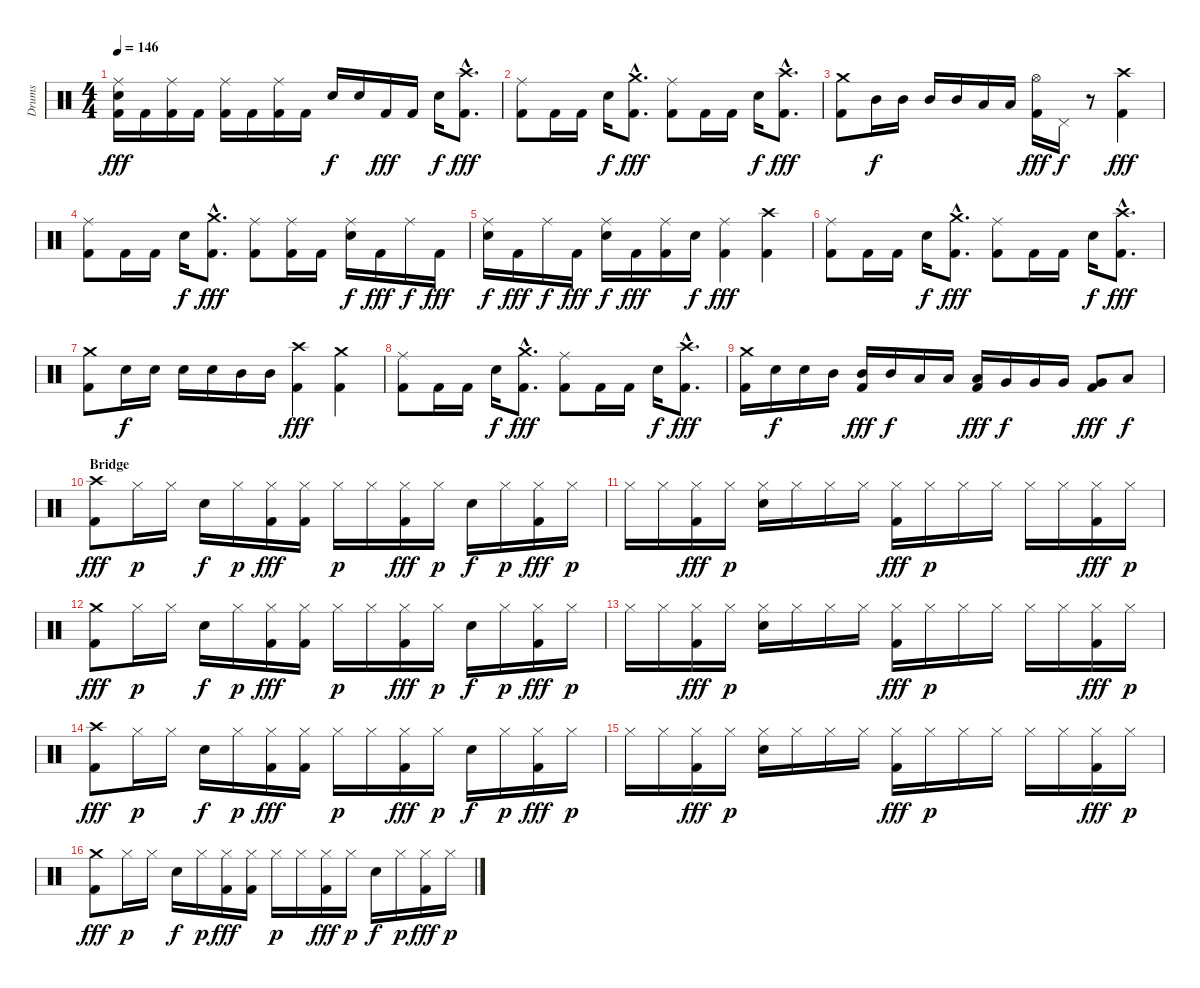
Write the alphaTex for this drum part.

\track ("Drums" "Drums") {instrument percussion}
\staff {score}
\articulation defaults
\ts (4 4)
\tempo 146
\clef neutral
\ks c
("Ride (middle)" "Snare (hit) 2" "Kick (hit) 2").16{dy fff} "Kick (hit) 2".16 ("Ride (middle)" "Kick (hit) 2").16 "Kick (hit) 2".16 ("Ride (middle)" "Kick (hit) 2").16 "Kick (hit) 2".16 ("Ride (middle)" "Kick (hit) 2").16 "Kick (hit) 2".16 "Snare (hit) 2".16{dy f} "Snare (hit) 2".16 "Kick (hit) 2".16{dy fff} "Kick (hit) 2".16 "Snare (hit) 2".16{dy f} ("Crash high (hit)"{hac} "Kick (hit) 2"{hac}).8{d dy fff} |
("Ride (middle)" "Kick (hit) 2").8 "Kick (hit) 2".16 "Kick (hit) 2".16 "Snare (hit) 2".16{dy f} ("Crash medium (hit)"{hac} "Kick (hit) 2"{hac}).8{d dy fff} ("Ride (middle)" "Kick (hit) 2").8 "Kick (hit) 2".16 "Kick (hit) 2".16 "Snare (hit) 2".16{dy f} ("Crash high (hit)"{hac} "Kick (hit) 2"{hac}).8{d dy fff} |
("Crash medium (hit)" "Kick (hit) 2").8 "Mid Tom (hit)".16{dy f} "Mid Tom (hit)".16 "Mid Tom (hit)".16 "Mid Tom (hit)".16 "Low Tom (hit)".16 "Low Tom (hit)".16 ("Hi-Hat (open)" "Kick (hit) 2").16{dy fff} "Pedal Hi-Hat (hit)".16{dy f} r.8 ("Crash high (hit)" "Kick (hit) 2").4{dy fff} |
("Ride (middle)" "Kick (hit) 2").8 "Kick (hit) 2".16 "Kick (hit) 2".16 "Snare (hit) 2".16{dy f} ("Crash medium (hit)"{hac} "Kick (hit) 2"{hac}).8{d dy fff} ("Ride (middle)" "Kick (hit) 2").8 ("Ride (middle)" "Kick (hit) 2").16 "Kick (hit) 2".16 ("Ride (middle)" "Snare (hit) 2").16{dy f} "Kick (hit) 2".16{dy fff} "Ride (middle)".16{dy f} "Kick (hit) 2".16{dy fff} |
("Ride (middle)" "Snare (hit) 2").16{dy f} "Kick (hit) 2".16{dy fff} "Ride (middle)".16{dy f} "Kick (hit) 2".16{dy fff} ("Ride (middle)" "Snare (hit) 2").16{dy f} "Kick (hit) 2".16{dy fff} ("Ride (middle)" "Kick (hit) 2").16 "Snare (hit) 2".16{dy f} ("Ride (middle)" "Kick (hit) 2").4{dy fff} ("Crash high (hit)" "Kick (hit) 2").4 |
("Ride (middle)" "Kick (hit) 2").8 "Kick (hit) 2".16 "Kick (hit) 2".16 "Snare (hit) 2".16{dy f} ("Crash medium (hit)"{hac} "Kick (hit) 2"{hac}).8{d dy fff} ("Ride (middle)" "Kick (hit) 2").8 "Kick (hit) 2".16 "Kick (hit) 2".16 "Snare (hit) 2".16{dy f} ("Crash high (hit)"{hac} "Kick (hit) 2"{hac}).8{d dy fff} |
("Crash medium (hit)" "Kick (hit) 2").8 "Snare (hit) 2".16{dy f} "Snare (hit) 2".16 "Snare (hit) 2".16 "Snare (hit) 2".16 "Mid Tom (hit)".16 "Mid Tom (hit)".16 ("Crash high (hit)" "Kick (hit) 2").4{dy fff} ("Crash medium (hit)" "Kick (hit) 2").4 |
("Ride (middle)" "Kick (hit) 2").8 "Kick (hit) 2".16 "Kick (hit) 2".16 "Snare (hit) 2".16{dy f} ("Crash medium (hit)"{hac} "Kick (hit) 2"{hac}).8{d dy fff} ("Ride (middle)" "Kick (hit) 2").8 "Kick (hit) 2".16 "Kick (hit) 2".16 "Snare (hit) 2".16{dy f} ("Crash high (hit)"{hac} "Kick (hit) 2"{hac}).8{d dy fff} |
("Crash medium (hit)" "Kick (hit) 2").16 "Snare (hit) 2".16{dy f} "Snare (hit) 2".16 "Mid Tom (hit)".16 ("Mid Tom (hit)" "Kick (hit) 2").16{dy fff} "Mid Tom (hit)".16{dy f} "Low Tom (hit)".16 "Low Tom (hit)".16 ("Low Tom (hit)" "Kick (hit) 2").16{dy fff} "Very Low Tom (hit)".16{dy f} "Very Low Tom (hit)".16 "Very Low Tom (hit)".16 ("Very Low Tom (hit)" "Kick (hit) 2").8{dy fff} "Low Floor Tom (hit)".8{dy f} |
\section ("" "Bridge")
("Crash high (hit)" "Kick (hit) 2").8{dy fff} "Hi-Hat (closed)".16{dy p} "Hi-Hat (closed)".16 "Snare (hit) 2".16{dy f} "Hi-Hat (closed)".16{dy p} ("Hi-Hat (closed)" "Kick (hit) 2").16{dy fff} ("Hi-Hat (closed)" "Kick (hit) 2").16 "Hi-Hat (closed)".16{dy p} "Hi-Hat (closed)".16 ("Hi-Hat (closed)" "Kick (hit) 2").16{dy fff} "Hi-Hat (closed)".16{dy p} "Snare (hit) 2".16{dy f} "Hi-Hat (closed)".16{dy p} ("Hi-Hat (closed)" "Kick (hit) 2").16{dy fff} "Hi-Hat (closed)".16{dy p} |
"Hi-Hat (closed)".16 "Hi-Hat (closed)".16 ("Hi-Hat (closed)" "Kick (hit) 2").16{dy fff} "Hi-Hat (closed)".16{dy p} ("Hi-Hat (closed)" "Snare (hit) 2").16 "Hi-Hat (closed)".16 "Hi-Hat (closed)".16 "Hi-Hat (closed)".16 ("Hi-Hat (closed)" "Kick (hit) 2").16{dy fff} "Hi-Hat (closed)".16{dy p} "Hi-Hat (closed)".16 "Hi-Hat (closed)".16 "Hi-Hat (closed)".16 "Hi-Hat (closed)".16 ("Hi-Hat (closed)" "Kick (hit) 2").16{dy fff} "Hi-Hat (closed)".16{dy p} |
("Crash medium (hit)" "Kick (hit) 2").8{dy fff} "Hi-Hat (closed)".16{dy p} "Hi-Hat (closed)".16 "Snare (hit) 2".16{dy f} "Hi-Hat (closed)".16{dy p} ("Hi-Hat (closed)" "Kick (hit) 2").16{dy fff} ("Hi-Hat (closed)" "Kick (hit) 2").16 "Hi-Hat (closed)".16{dy p} "Hi-Hat (closed)".16 ("Hi-Hat (closed)" "Kick (hit) 2").16{dy fff} "Hi-Hat (closed)".16{dy p} "Snare (hit) 2".16{dy f} "Hi-Hat (closed)".16{dy p} ("Hi-Hat (closed)" "Kick (hit) 2").16{dy fff} "Hi-Hat (closed)".16{dy p} |
"Hi-Hat (closed)".16 "Hi-Hat (closed)".16 ("Hi-Hat (closed)" "Kick (hit) 2").16{dy fff} "Hi-Hat (closed)".16{dy p} ("Hi-Hat (closed)" "Snare (hit) 2").16 "Hi-Hat (closed)".16 "Hi-Hat (closed)".16 "Hi-Hat (closed)".16 ("Hi-Hat (closed)" "Kick (hit) 2").16{dy fff} "Hi-Hat (closed)".16{dy p} "Hi-Hat (closed)".16 "Hi-Hat (closed)".16 "Hi-Hat (closed)".16 "Hi-Hat (closed)".16 ("Hi-Hat (closed)" "Kick (hit) 2").16{dy fff} "Hi-Hat (closed)".16{dy p} |
("Crash high (hit)" "Kick (hit) 2").8{dy fff} "Hi-Hat (closed)".16{dy p} "Hi-Hat (closed)".16 "Snare (hit) 2".16{dy f} "Hi-Hat (closed)".16{dy p} ("Hi-Hat (closed)" "Kick (hit) 2").16{dy fff} ("Hi-Hat (closed)" "Kick (hit) 2").16 "Hi-Hat (closed)".16{dy p} "Hi-Hat (closed)".16 ("Hi-Hat (closed)" "Kick (hit) 2").16{dy fff} "Hi-Hat (closed)".16{dy p} "Snare (hit) 2".16{dy f} "Hi-Hat (closed)".16{dy p} ("Hi-Hat (closed)" "Kick (hit) 2").16{dy fff} "Hi-Hat (closed)".16{dy p} |
"Hi-Hat (closed)".16 "Hi-Hat (closed)".16 ("Hi-Hat (closed)" "Kick (hit) 2").16{dy fff} "Hi-Hat (closed)".16{dy p} ("Hi-Hat (closed)" "Snare (hit) 2").16 "Hi-Hat (closed)".16 "Hi-Hat (closed)".16 "Hi-Hat (closed)".16 ("Hi-Hat (closed)" "Kick (hit) 2").16{dy fff} "Hi-Hat (closed)".16{dy p} "Hi-Hat (closed)".16 "Hi-Hat (closed)".16 "Hi-Hat (closed)".16 "Hi-Hat (closed)".16 ("Hi-Hat (closed)" "Kick (hit) 2").16{dy fff} "Hi-Hat (closed)".16{dy p} |
("Crash medium (hit)" "Kick (hit) 2").8{dy fff} "Hi-Hat (closed)".16{dy p} "Hi-Hat (closed)".16 "Snare (hit) 2".16{dy f} "Hi-Hat (closed)".16{dy p} ("Hi-Hat (closed)" "Kick (hit) 2").16{dy fff} ("Hi-Hat (closed)" "Kick (hit) 2").16 "Hi-Hat (closed)".16{dy p} "Hi-Hat (closed)".16 ("Hi-Hat (closed)" "Kick (hit) 2").16{dy fff} "Hi-Hat (closed)".16{dy p} "Snare (hit) 2".16{dy f} "Hi-Hat (closed)".16{dy p} ("Hi-Hat (closed)" "Kick (hit) 2").16{dy fff} "Hi-Hat (closed)".16{dy p}
